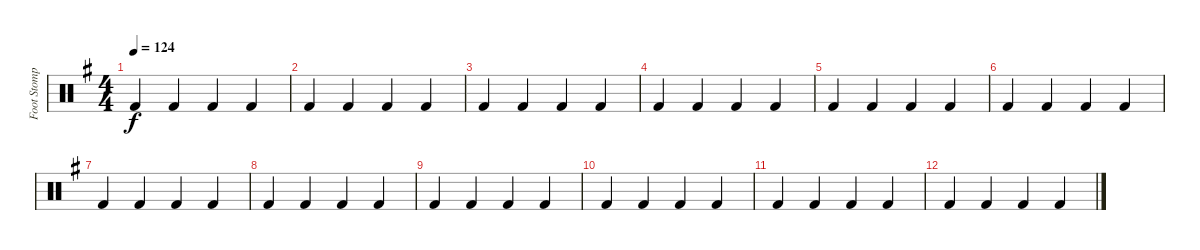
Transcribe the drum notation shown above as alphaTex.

\track ("Foot Stomp" "Foot Stomp") {instrument percussion}
\staff {score}
\articulation defaults
\ts (4 4)
\tempo 124
\clef neutral
\ks eminor "Kick (hit) 2".4{dy f} "Kick (hit) 2".4 "Kick (hit) 2".4 "Kick (hit) 2".4
|
"Kick (hit) 2".4 "Kick (hit) 2".4 "Kick (hit) 2".4 "Kick (hit) 2".4 |
"Kick (hit) 2".4 "Kick (hit) 2".4 "Kick (hit) 2".4 "Kick (hit) 2".4 |
"Kick (hit) 2".4 "Kick (hit) 2".4 "Kick (hit) 2".4 "Kick (hit) 2".4 |
"Kick (hit) 2".4 "Kick (hit) 2".4 "Kick (hit) 2".4 "Kick (hit) 2".4 |
"Kick (hit) 2".4 "Kick (hit) 2".4 "Kick (hit) 2".4 "Kick (hit) 2".4 |
"Kick (hit) 2".4 "Kick (hit) 2".4 "Kick (hit) 2".4 "Kick (hit) 2".4 |
"Kick (hit) 2".4 "Kick (hit) 2".4 "Kick (hit) 2".4 "Kick (hit) 2".4 |
"Kick (hit) 2".4 "Kick (hit) 2".4 "Kick (hit) 2".4 "Kick (hit) 2".4 |
"Kick (hit) 2".4 "Kick (hit) 2".4 "Kick (hit) 2".4 "Kick (hit) 2".4 |
"Kick (hit) 2".4 "Kick (hit) 2".4 "Kick (hit) 2".4 "Kick (hit) 2".4 |
"Kick (hit) 2".4 "Kick (hit) 2".4 "Kick (hit) 2".4 "Kick (hit) 2".4
